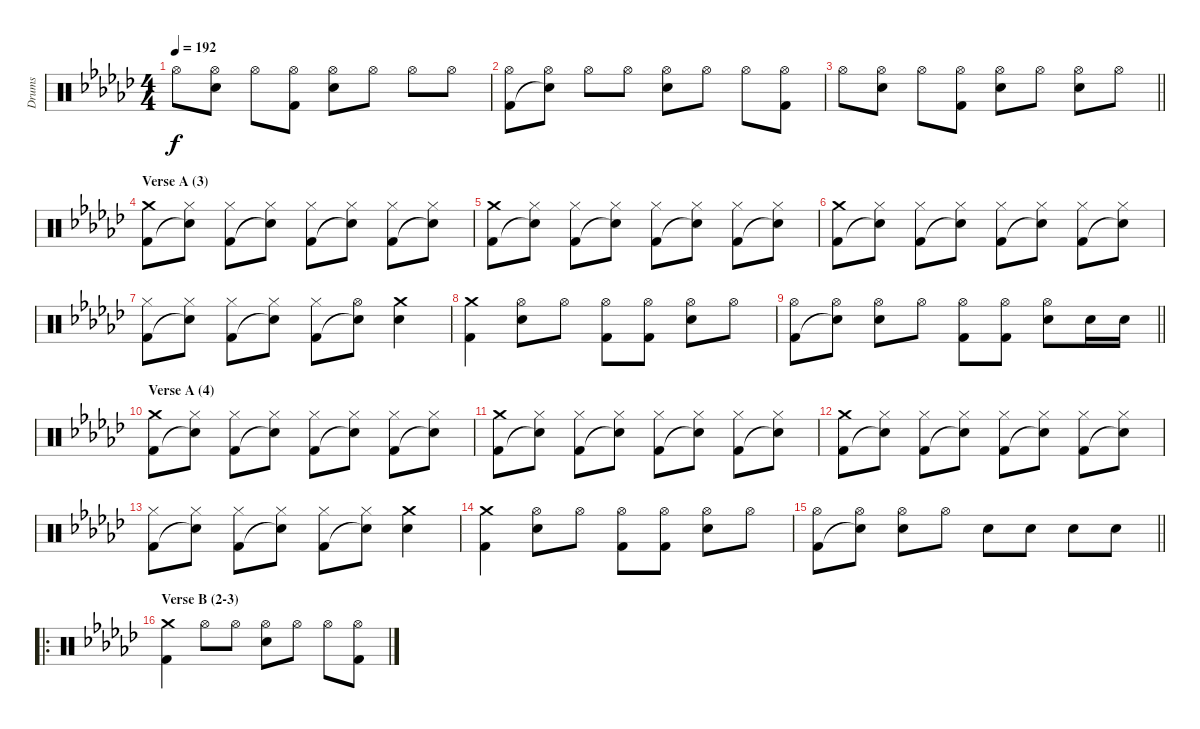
\track ("Drums" "Drums") {instrument percussion}
\staff {score}
\articulation defaults
\ts (4 4)
\tempo 192
\clef neutral
\ks ebminor "Hi-Hat (open)".8{dy f}
("Hi-Hat (open)" "Electric Snare (hit)").8 "Hi-Hat (open)".8 ("Hi-Hat (open)" "Kick (hit) 2").8 ("Hi-Hat (open)" "Electric Snare (hit)").8 "Hi-Hat (open)".8 "Hi-Hat (open)".8 "Hi-Hat (open)".8 |
("Hi-Hat (open)" "Kick (hit) 2").8 ("Hi-Hat (open)" "Snare (hit)"{t}).8 "Hi-Hat (open)".8 "Hi-Hat (open)".8 ("Hi-Hat (open)" "Electric Snare (hit)").8 "Hi-Hat (open)".8 "Hi-Hat (open)".8 ("Hi-Hat (open)" "Kick (hit) 2").8 |
\barLineRight lightlight "Hi-Hat (open)".8
("Hi-Hat (open)" "Electric Snare (hit)").8 "Hi-Hat (open)".8 ("Hi-Hat (open)" "Kick (hit) 2").8 ("Hi-Hat (open)" "Electric Snare (hit)").8 "Hi-Hat (open)".8 ("Hi-Hat (open)" "Electric Snare (hit)").8 "Hi-Hat (open)".8 |
\section ("" "Verse A (3)")
("Crash medium (hit)" "Kick (hit) 2").8 ("Hi-Hat (closed)" "Snare (hit)"{t}).8 ("Hi-Hat (closed)" "Kick (hit) 2").8 ("Hi-Hat (closed)" "Snare (hit)"{t}).8 ("Hi-Hat (closed)" "Kick (hit) 2").8 ("Hi-Hat (closed)" "Snare (hit)"{t}).8 ("Hi-Hat (closed)" "Kick (hit) 2").8 ("Hi-Hat (closed)" "Snare (hit)"{t}).8 |
("Crash medium (hit)" "Kick (hit) 2").8 ("Hi-Hat (closed)" "Snare (hit)"{t}).8 ("Hi-Hat (closed)" "Kick (hit) 2").8 ("Hi-Hat (closed)" "Snare (hit)"{t}).8 ("Hi-Hat (closed)" "Kick (hit) 2").8 ("Hi-Hat (closed)" "Snare (hit)"{t}).8 ("Hi-Hat (closed)" "Kick (hit) 2").8 ("Hi-Hat (closed)" "Snare (hit)"{t}).8 |
("Crash medium (hit)" "Kick (hit) 2").8 ("Hi-Hat (closed)" "Snare (hit)"{t}).8 ("Hi-Hat (closed)" "Kick (hit) 2").8 ("Hi-Hat (closed)" "Snare (hit)"{t}).8 ("Hi-Hat (closed)" "Kick (hit) 2").8 ("Hi-Hat (closed)" "Snare (hit)"{t}).8 ("Hi-Hat (closed)" "Kick (hit) 2").8 ("Hi-Hat (closed)" "Snare (hit)"{t}).8 |
("Hi-Hat (closed)" "Kick (hit) 2").8 ("Hi-Hat (closed)" "Snare (hit)"{t}).8 ("Hi-Hat (closed)" "Kick (hit) 2").8 ("Hi-Hat (closed)" "Snare (hit)"{t}).8 ("Hi-Hat (closed)" "Kick (hit) 2").8 ("Hi-Hat (open)" "Snare (hit)"{t}).8 ("Crash medium (hit)" "Electric Snare (hit)").4 |
("Crash medium (hit)" "Kick (hit) 2").4 ("Hi-Hat (open)" "Electric Snare (hit)").8 "Hi-Hat (open)".8 ("Hi-Hat (open)" "Kick (hit) 2").8 ("Hi-Hat (open)" "Kick (hit) 2").8 ("Hi-Hat (open)" "Electric Snare (hit)").8 "Hi-Hat (open)".8 |
\barLineRight lightlight
("Hi-Hat (open)" "Kick (hit) 2").8 ("Hi-Hat (open)" "Snare (hit)"{t}).8 ("Hi-Hat (open)" "Electric Snare (hit)").8 "Hi-Hat (open)".8 ("Hi-Hat (open)" "Kick (hit) 2").8 ("Hi-Hat (open)" "Kick (hit) 2").8 ("Hi-Hat (open)" "Electric Snare (hit)").8 "Electric Snare (hit)".16 "Electric Snare (hit)".16 |
\section ("" "Verse A (4)")
("Crash medium (hit)" "Kick (hit) 2").8 ("Hi-Hat (closed)" "Snare (hit)"{t}).8 ("Hi-Hat (closed)" "Kick (hit) 2").8 ("Hi-Hat (closed)" "Snare (hit)"{t}).8 ("Hi-Hat (closed)" "Kick (hit) 2").8 ("Hi-Hat (closed)" "Snare (hit)"{t}).8 ("Hi-Hat (closed)" "Kick (hit) 2").8 ("Hi-Hat (closed)" "Snare (hit)"{t}).8 |
("Crash medium (hit)" "Kick (hit) 2").8 ("Hi-Hat (closed)" "Snare (hit)"{t}).8 ("Hi-Hat (closed)" "Kick (hit) 2").8 ("Hi-Hat (closed)" "Snare (hit)"{t}).8 ("Hi-Hat (closed)" "Kick (hit) 2").8 ("Hi-Hat (closed)" "Snare (hit)"{t}).8 ("Hi-Hat (closed)" "Kick (hit) 2").8 ("Hi-Hat (closed)" "Snare (hit)"{t}).8 |
("Crash medium (hit)" "Kick (hit) 2").8 ("Hi-Hat (closed)" "Snare (hit)"{t}).8 ("Hi-Hat (closed)" "Kick (hit) 2").8 ("Hi-Hat (closed)" "Snare (hit)"{t}).8 ("Hi-Hat (closed)" "Kick (hit) 2").8 ("Hi-Hat (closed)" "Snare (hit)"{t}).8 ("Hi-Hat (closed)" "Kick (hit) 2").8 ("Hi-Hat (closed)" "Snare (hit)"{t}).8 |
("Hi-Hat (closed)" "Kick (hit) 2").8 ("Hi-Hat (closed)" "Snare (hit)"{t}).8 ("Hi-Hat (closed)" "Kick (hit) 2").8 ("Hi-Hat (closed)" "Snare (hit)"{t}).8 ("Hi-Hat (closed)" "Kick (hit) 2").8 ("Hi-Hat (closed)" "Snare (hit)"{t}).8 ("Crash medium (hit)" "Electric Snare (hit)").4 |
("Crash medium (hit)" "Kick (hit) 2").4 ("Hi-Hat (open)" "Electric Snare (hit)").8 "Hi-Hat (open)".8 ("Hi-Hat (open)" "Kick (hit) 2").8 ("Hi-Hat (open)" "Kick (hit) 2").8 ("Hi-Hat (open)" "Electric Snare (hit)").8 "Hi-Hat (open)".8 |
\barLineRight lightlight
("Hi-Hat (open)" "Kick (hit) 2").8 ("Hi-Hat (open)" "Snare (hit)"{t}).8 ("Hi-Hat (open)" "Electric Snare (hit)").8 "Hi-Hat (open)".8 "Electric Snare (hit)".8 "Electric Snare (hit)".8 "Electric Snare (hit)".8 "Electric Snare (hit)".8 |
\ro
\section ("" "Verse B (2-3)")
("Crash medium (hit)" "Kick (hit) 2").4 "Hi-Hat (open)".8 "Hi-Hat (open)".8 ("Hi-Hat (open)" "Electric Snare (hit)").8 "Hi-Hat (open)".8 "Hi-Hat (open)".8 ("Hi-Hat (open)" "Kick (hit) 2").8
